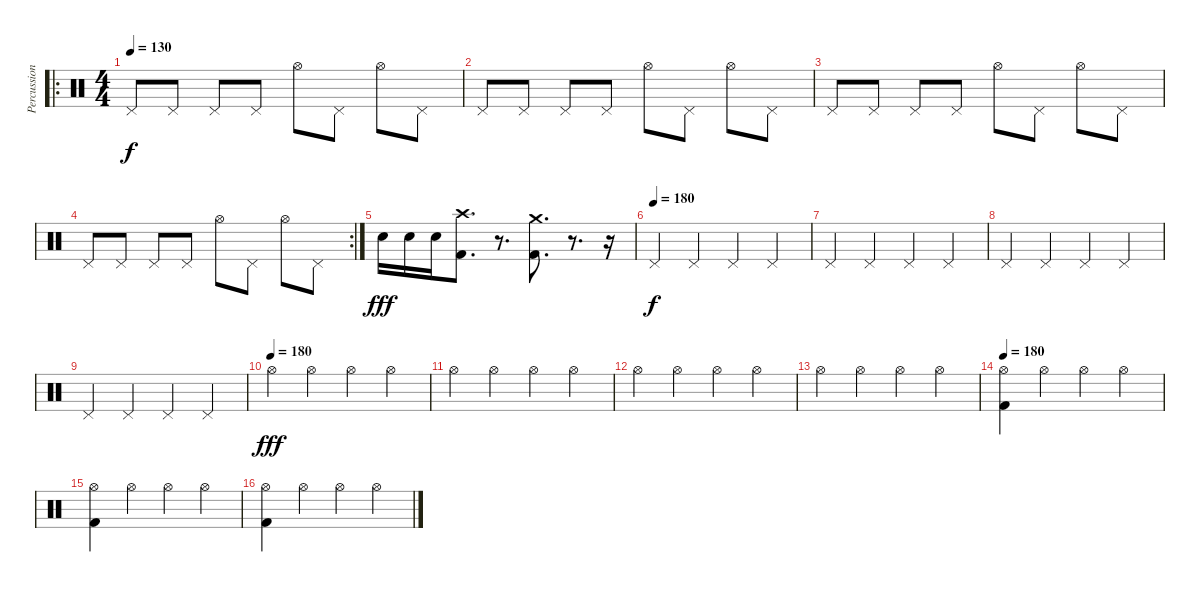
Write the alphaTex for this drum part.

\track ("Percussion" "Percussion") {instrument percussion}
\staff {score}
\articulation defaults
\ro
\ts (4 4)
\tempo 130
\clef neutral
\ks c "Pedal Hi-Hat (hit)".8{dy f} "Pedal Hi-Hat (hit)".8 "Pedal Hi-Hat (hit)".8 "Pedal Hi-Hat (hit)".8 "Hi-Hat (open)".8 "Pedal Hi-Hat (hit)".8 "Hi-Hat (open)".8 "Pedal Hi-Hat (hit)".8
|
"Pedal Hi-Hat (hit)".8 "Pedal Hi-Hat (hit)".8 "Pedal Hi-Hat (hit)".8 "Pedal Hi-Hat (hit)".8 "Hi-Hat (open)".8 "Pedal Hi-Hat (hit)".8 "Hi-Hat (open)".8 "Pedal Hi-Hat (hit)".8 |
"Pedal Hi-Hat (hit)".8 "Pedal Hi-Hat (hit)".8 "Pedal Hi-Hat (hit)".8 "Pedal Hi-Hat (hit)".8 "Hi-Hat (open)".8 "Pedal Hi-Hat (hit)".8 "Hi-Hat (open)".8 "Pedal Hi-Hat (hit)".8 |
\rc 2 "Pedal Hi-Hat (hit)".8 "Pedal Hi-Hat (hit)".8 "Pedal Hi-Hat (hit)".8 "Pedal Hi-Hat (hit)".8 "Hi-Hat (open)".8 "Pedal Hi-Hat (hit)".8 "Hi-Hat (open)".8 "Pedal Hi-Hat (hit)".8
|
"Snare (hit) 2".16{dy fff} "Snare (hit) 2".16 "Snare (hit) 2".16 ("Kick (hit) 2" "Crash high (hit)").8{d} r.8{d} ("Kick (hit) 2" "Crash medium (hit)").8{d} r.8{d} r.16 |
\tempo (180)
"Pedal Hi-Hat (hit)".4{dy f} "Pedal Hi-Hat (hit)".4 "Pedal Hi-Hat (hit)".4 "Pedal Hi-Hat (hit)".4 |
"Pedal Hi-Hat (hit)".4 "Pedal Hi-Hat (hit)".4 "Pedal Hi-Hat (hit)".4 "Pedal Hi-Hat (hit)".4 |
"Pedal Hi-Hat (hit)".4 "Pedal Hi-Hat (hit)".4 "Pedal Hi-Hat (hit)".4 "Pedal Hi-Hat (hit)".4 |
"Pedal Hi-Hat (hit)".4 "Pedal Hi-Hat (hit)".4 "Pedal Hi-Hat (hit)".4 "Pedal Hi-Hat (hit)".4 |
\tempo (180)
"Hi-Hat (open)".4{dy fff} "Hi-Hat (open)".4 "Hi-Hat (open)".4 "Hi-Hat (open)".4 |
"Hi-Hat (open)".4 "Hi-Hat (open)".4 "Hi-Hat (open)".4 "Hi-Hat (open)".4 |
"Hi-Hat (open)".4 "Hi-Hat (open)".4 "Hi-Hat (open)".4 "Hi-Hat (open)".4 |
"Hi-Hat (open)".4 "Hi-Hat (open)".4 "Hi-Hat (open)".4 "Hi-Hat (open)".4 |
\tempo 180
("Kick (hit) 2" "Hi-Hat (open)").4 "Hi-Hat (open)".4 "Hi-Hat (open)".4 "Hi-Hat (open)".4 |
("Kick (hit) 2" "Hi-Hat (open)").4 "Hi-Hat (open)".4 "Hi-Hat (open)".4 "Hi-Hat (open)".4 |
("Kick (hit) 2" "Hi-Hat (open)").4 "Hi-Hat (open)".4 "Hi-Hat (open)".4 "Hi-Hat (open)".4
